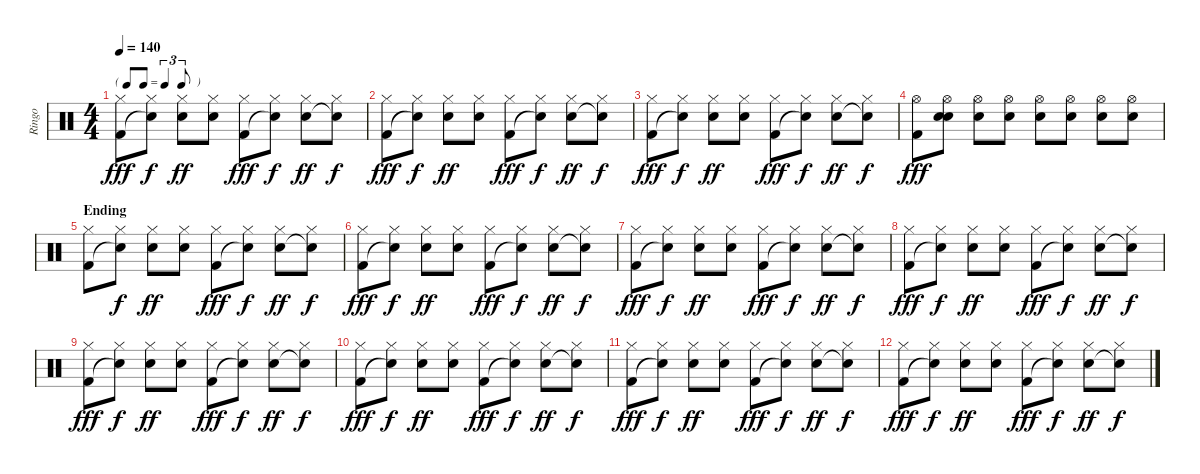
\track ("Ringo" "Ringo") {instrument percussion}
\staff {score}
\articulation defaults
\ts (4 4)
\tf triplet8th
\tempo 140
\clef neutral
\ks c
("Hi-Hat (closed)" "Kick (hit) 2").8{dy fff} ("Hi-Hat (closed)" "Snare (hit)"{t}).8{dy f} ("Hi-Hat (closed)" "Electric Snare (hit)").8{dy ff} ("Hi-Hat (closed)" "Electric Snare (hit)").8 ("Hi-Hat (closed)" "Kick (hit) 2").8{dy fff} ("Hi-Hat (closed)" "Snare (hit)"{t}).8{dy f} ("Hi-Hat (closed)" "Electric Snare (hit)").8{dy ff} ("Hi-Hat (closed)" "Snare (hit)"{t}).8{dy f} |
("Hi-Hat (closed)" "Kick (hit) 2").8{dy fff} ("Hi-Hat (closed)" "Snare (hit)"{t}).8{dy f} ("Hi-Hat (closed)" "Electric Snare (hit)").8{dy ff} ("Hi-Hat (closed)" "Electric Snare (hit)").8 ("Hi-Hat (closed)" "Kick (hit) 2").8{dy fff} ("Hi-Hat (closed)" "Snare (hit)"{t}).8{dy f} ("Hi-Hat (closed)" "Electric Snare (hit)").8{dy ff} ("Hi-Hat (closed)" "Snare (hit)"{t}).8{dy f} |
("Hi-Hat (closed)" "Kick (hit) 2").8{dy fff} ("Hi-Hat (closed)" "Snare (hit)"{t}).8{dy f} ("Hi-Hat (closed)" "Electric Snare (hit)").8{dy ff} ("Hi-Hat (closed)" "Electric Snare (hit)").8 ("Hi-Hat (closed)" "Kick (hit) 2").8{dy fff} ("Hi-Hat (closed)" "Snare (hit)"{t}).8{dy f} ("Hi-Hat (closed)" "Electric Snare (hit)").8{dy ff} ("Hi-Hat (closed)" "Snare (hit)"{t}).8{dy f} |
("Hi-Hat (open)" "Kick (hit) 2").8{dy fff} ("Hi-Hat (open)" "Electric Snare (hit)" "Snare (hit)").8 ("Hi-Hat (open)" "Electric Snare (hit)").8 ("Hi-Hat (open)" "Electric Snare (hit)").8 ("Hi-Hat (open)" "Electric Snare (hit)").8 ("Hi-Hat (open)" "Electric Snare (hit)").8 ("Hi-Hat (open)" "Electric Snare (hit)").8 ("Hi-Hat (open)" "Electric Snare (hit)").8 |
\section ("" "Ending")
("Hi-Hat (closed)" "Kick (hit) 2").8 ("Hi-Hat (closed)" "Snare (hit)"{t}).8{dy f} ("Hi-Hat (closed)" "Electric Snare (hit)").8{dy ff} ("Hi-Hat (closed)" "Electric Snare (hit)").8 ("Hi-Hat (closed)" "Kick (hit) 2").8{dy fff} ("Hi-Hat (closed)" "Snare (hit)"{t}).8{dy f} ("Hi-Hat (closed)" "Electric Snare (hit)").8{dy ff} ("Hi-Hat (closed)" "Snare (hit)"{t}).8{dy f} |
("Hi-Hat (closed)" "Kick (hit) 2").8{dy fff} ("Hi-Hat (closed)" "Snare (hit)"{t}).8{dy f} ("Hi-Hat (closed)" "Electric Snare (hit)").8{dy ff} ("Hi-Hat (closed)" "Electric Snare (hit)").8 ("Hi-Hat (closed)" "Kick (hit) 2").8{dy fff} ("Hi-Hat (closed)" "Snare (hit)"{t}).8{dy f} ("Hi-Hat (closed)" "Electric Snare (hit)").8{dy ff} ("Hi-Hat (closed)" "Snare (hit)"{t}).8{dy f} |
("Hi-Hat (closed)" "Kick (hit) 2").8{dy fff volume 12} ("Hi-Hat (closed)" "Snare (hit)"{t}).8{dy f} ("Hi-Hat (closed)" "Electric Snare (hit)").8{dy ff} ("Hi-Hat (closed)" "Electric Snare (hit)").8 ("Hi-Hat (closed)" "Kick (hit) 2").8{dy fff} ("Hi-Hat (closed)" "Snare (hit)"{t}).8{dy f} ("Hi-Hat (closed)" "Electric Snare (hit)").8{dy ff} ("Hi-Hat (closed)" "Snare (hit)"{t}).8{dy f} |
("Hi-Hat (closed)" "Kick (hit) 2").8{dy fff volume 10} ("Hi-Hat (closed)" "Snare (hit)"{t}).8{dy f} ("Hi-Hat (closed)" "Electric Snare (hit)").8{dy ff} ("Hi-Hat (closed)" "Electric Snare (hit)").8 ("Hi-Hat (closed)" "Kick (hit) 2").8{dy fff} ("Hi-Hat (closed)" "Snare (hit)"{t}).8{dy f} ("Hi-Hat (closed)" "Electric Snare (hit)").8{dy ff} ("Hi-Hat (closed)" "Snare (hit)"{t}).8{dy f} |
("Hi-Hat (closed)" "Kick (hit) 2").8{dy fff volume 8} ("Hi-Hat (closed)" "Snare (hit)"{t}).8{dy f} ("Hi-Hat (closed)" "Electric Snare (hit)").8{dy ff} ("Hi-Hat (closed)" "Electric Snare (hit)").8 ("Hi-Hat (closed)" "Kick (hit) 2").8{dy fff} ("Hi-Hat (closed)" "Snare (hit)"{t}).8{dy f} ("Hi-Hat (closed)" "Electric Snare (hit)").8{dy ff} ("Hi-Hat (closed)" "Snare (hit)"{t}).8{dy f} |
("Hi-Hat (closed)" "Kick (hit) 2").8{dy fff volume 6} ("Hi-Hat (closed)" "Snare (hit)"{t}).8{dy f} ("Hi-Hat (closed)" "Electric Snare (hit)").8{dy ff} ("Hi-Hat (closed)" "Electric Snare (hit)").8 ("Hi-Hat (closed)" "Kick (hit) 2").8{dy fff} ("Hi-Hat (closed)" "Snare (hit)"{t}).8{dy f} ("Hi-Hat (closed)" "Electric Snare (hit)").8{dy ff} ("Hi-Hat (closed)" "Snare (hit)"{t}).8{dy f} |
("Hi-Hat (closed)" "Kick (hit) 2").8{dy fff volume 4} ("Hi-Hat (closed)" "Snare (hit)"{t}).8{dy f} ("Hi-Hat (closed)" "Electric Snare (hit)").8{dy ff} ("Hi-Hat (closed)" "Electric Snare (hit)").8 ("Hi-Hat (closed)" "Kick (hit) 2").8{dy fff} ("Hi-Hat (closed)" "Snare (hit)"{t}).8{dy f} ("Hi-Hat (closed)" "Electric Snare (hit)").8{dy ff} ("Hi-Hat (closed)" "Snare (hit)"{t}).8{dy f} |
("Hi-Hat (closed)" "Kick (hit) 2").8{dy fff volume 2} ("Hi-Hat (closed)" "Snare (hit)"{t}).8{dy f} ("Hi-Hat (closed)" "Electric Snare (hit)").8{dy ff} ("Hi-Hat (closed)" "Electric Snare (hit)").8 ("Hi-Hat (closed)" "Kick (hit) 2").8{dy fff} ("Hi-Hat (closed)" "Snare (hit)"{t}).8{dy f} ("Hi-Hat (closed)" "Electric Snare (hit)").8{dy ff} ("Hi-Hat (closed)" "Snare (hit)"{t}).8{dy f}
